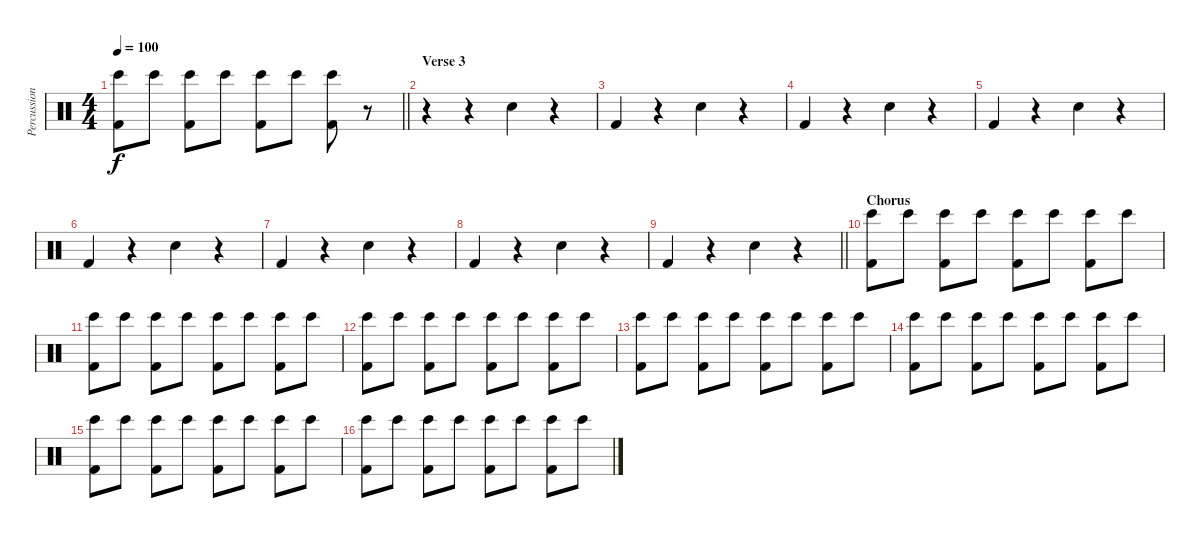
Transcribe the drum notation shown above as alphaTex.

\track ("Percussion" "Percussion") {instrument percussion}
\staff {score}
\articulation defaults
\ts (4 4)
\tempo 100
\clef neutral
\barLineRight lightlight
\ks c
("Bongo High (hit)" "Kick (hit) 2").8{dy f} "Bongo High (hit)".8 ("Bongo High (hit)" "Kick (hit) 2").8 "Bongo High (hit)".8 ("Bongo High (hit)" "Kick (hit) 2").8 "Bongo High (hit)".8 ("Bongo High (hit)" "Kick (hit) 2").8 r.8 |
\section ("" "Verse 3")
r.4 r.4 "Snare (hit) 2".4 r.4 |
"Kick (hit) 2".4 r.4 "Snare (hit) 2".4 r.4 |
"Kick (hit) 2".4 r.4 "Snare (hit) 2".4 r.4 |
"Kick (hit) 2".4 r.4 "Snare (hit) 2".4 r.4 |
"Kick (hit) 2".4 r.4 "Snare (hit) 2".4 r.4 |
"Kick (hit) 2".4 r.4 "Snare (hit) 2".4 r.4 |
"Kick (hit) 2".4 r.4 "Snare (hit) 2".4 r.4 |
\barLineRight lightlight "Kick (hit) 2".4
r.4 "Snare (hit) 2".4 r.4 |
\section ("" "Chorus")
("Bongo High (hit)" "Kick (hit) 2").8 "Bongo High (hit)".8 ("Bongo High (hit)" "Kick (hit) 2").8 "Bongo High (hit)".8 ("Bongo High (hit)" "Kick (hit) 2").8 "Bongo High (hit)".8 ("Bongo High (hit)" "Kick (hit) 2").8 "Bongo High (hit)".8 |
("Bongo High (hit)" "Kick (hit) 2").8 "Bongo High (hit)".8 ("Bongo High (hit)" "Kick (hit) 2").8 "Bongo High (hit)".8 ("Bongo High (hit)" "Kick (hit) 2").8 "Bongo High (hit)".8 ("Bongo High (hit)" "Kick (hit) 2").8 "Bongo High (hit)".8 |
("Bongo High (hit)" "Kick (hit) 2").8 "Bongo High (hit)".8 ("Bongo High (hit)" "Kick (hit) 2").8 "Bongo High (hit)".8 ("Bongo High (hit)" "Kick (hit) 2").8 "Bongo High (hit)".8 ("Bongo High (hit)" "Kick (hit) 2").8 "Bongo High (hit)".8 |
("Bongo High (hit)" "Kick (hit) 2").8 "Bongo High (hit)".8 ("Bongo High (hit)" "Kick (hit) 2").8 "Bongo High (hit)".8 ("Bongo High (hit)" "Kick (hit) 2").8 "Bongo High (hit)".8 ("Bongo High (hit)" "Kick (hit) 2").8 "Bongo High (hit)".8 |
("Bongo High (hit)" "Kick (hit) 2").8 "Bongo High (hit)".8 ("Bongo High (hit)" "Kick (hit) 2").8 "Bongo High (hit)".8 ("Bongo High (hit)" "Kick (hit) 2").8 "Bongo High (hit)".8 ("Bongo High (hit)" "Kick (hit) 2").8 "Bongo High (hit)".8 |
("Bongo High (hit)" "Kick (hit) 2").8 "Bongo High (hit)".8 ("Bongo High (hit)" "Kick (hit) 2").8 "Bongo High (hit)".8 ("Bongo High (hit)" "Kick (hit) 2").8 "Bongo High (hit)".8 ("Bongo High (hit)" "Kick (hit) 2").8 "Bongo High (hit)".8 |
("Bongo High (hit)" "Kick (hit) 2").8 "Bongo High (hit)".8 ("Bongo High (hit)" "Kick (hit) 2").8 "Bongo High (hit)".8 ("Bongo High (hit)" "Kick (hit) 2").8 "Bongo High (hit)".8 ("Bongo High (hit)" "Kick (hit) 2").8 "Bongo High (hit)".8
